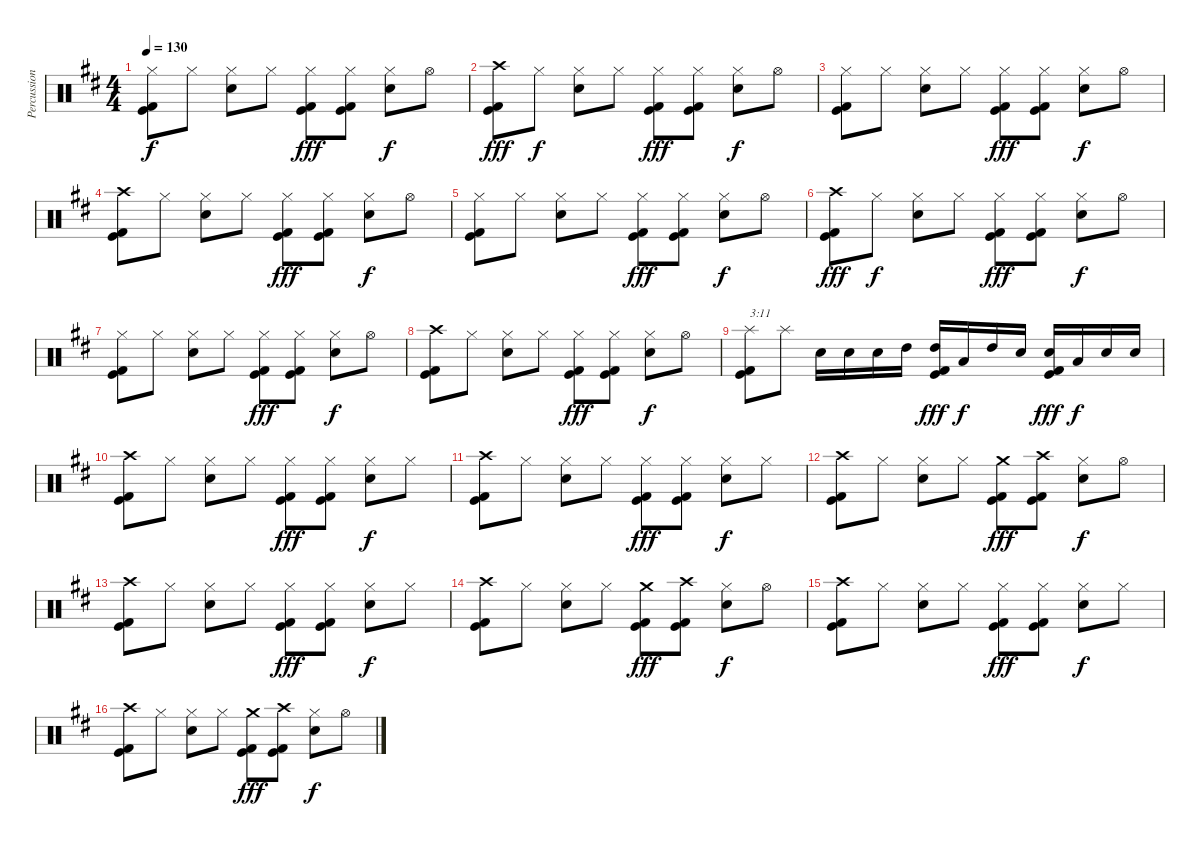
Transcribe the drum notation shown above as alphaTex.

\track ("Percussion" "Percussion") {instrument percussion}
\staff {score}
\articulation defaults
\ts (4 4)
\tempo 130
\clef neutral
\ks d
("Hi-Hat (closed)" "Kick (hit)" "Kick (hit) 2").8{dy f} "Hi-Hat (closed)".8 ("Hi-Hat (closed)" "Electric Snare (hit)").8 "Hi-Hat (closed)".8 ("Hi-Hat (closed)" "Kick (hit)" "Kick (hit) 2").8{dy fff} ("Hi-Hat (closed)" "Kick (hit)" "Kick (hit) 2").8 ("Hi-Hat (closed)" "Electric Snare (hit)").8{dy f} "Hi-Hat (open)".8 |
("Crash high (hit)" "Kick (hit)" "Kick (hit) 2").8{dy fff} "Hi-Hat (closed)".8{dy f} ("Hi-Hat (closed)" "Electric Snare (hit)").8 "Hi-Hat (closed)".8 ("Hi-Hat (closed)" "Kick (hit)" "Kick (hit) 2").8{dy fff} ("Hi-Hat (closed)" "Kick (hit)" "Kick (hit) 2").8 ("Hi-Hat (closed)" "Electric Snare (hit)").8{dy f} "Hi-Hat (open)".8 |
("Hi-Hat (closed)" "Kick (hit)" "Kick (hit) 2").8 "Hi-Hat (closed)".8 ("Hi-Hat (closed)" "Electric Snare (hit)").8 "Hi-Hat (closed)".8 ("Hi-Hat (closed)" "Kick (hit)" "Kick (hit) 2").8{dy fff} ("Hi-Hat (closed)" "Kick (hit)" "Kick (hit) 2").8 ("Hi-Hat (closed)" "Electric Snare (hit)").8{dy f} "Hi-Hat (open)".8 |
("Crash high (hit)" "Kick (hit)" "Kick (hit) 2").8 "Hi-Hat (closed)".8 ("Hi-Hat (closed)" "Electric Snare (hit)").8 "Hi-Hat (closed)".8 ("Hi-Hat (closed)" "Kick (hit)" "Kick (hit) 2").8{dy fff} ("Hi-Hat (closed)" "Kick (hit)" "Kick (hit) 2").8 ("Hi-Hat (closed)" "Electric Snare (hit)").8{dy f} "Hi-Hat (open)".8 |
("Hi-Hat (closed)" "Kick (hit)" "Kick (hit) 2").8 "Hi-Hat (closed)".8 ("Hi-Hat (closed)" "Electric Snare (hit)").8 "Hi-Hat (closed)".8 ("Hi-Hat (closed)" "Kick (hit)" "Kick (hit) 2").8{dy fff} ("Hi-Hat (closed)" "Kick (hit)" "Kick (hit) 2").8 ("Hi-Hat (closed)" "Electric Snare (hit)").8{dy f} "Hi-Hat (open)".8 |
("Crash high (hit)" "Kick (hit)" "Kick (hit) 2").8{dy fff} "Hi-Hat (closed)".8{dy f} ("Hi-Hat (closed)" "Electric Snare (hit)").8 "Hi-Hat (closed)".8 ("Hi-Hat (closed)" "Kick (hit)" "Kick (hit) 2").8{dy fff} ("Hi-Hat (closed)" "Kick (hit)" "Kick (hit) 2").8 ("Hi-Hat (closed)" "Electric Snare (hit)").8{dy f} "Hi-Hat (open)".8 |
("Hi-Hat (closed)" "Kick (hit)" "Kick (hit) 2").8 "Hi-Hat (closed)".8 ("Hi-Hat (closed)" "Electric Snare (hit)").8 "Hi-Hat (closed)".8 ("Hi-Hat (closed)" "Kick (hit)" "Kick (hit) 2").8{dy fff} ("Hi-Hat (closed)" "Kick (hit)" "Kick (hit) 2").8 ("Hi-Hat (closed)" "Electric Snare (hit)").8{dy f} "Hi-Hat (open)".8 |
("Crash high (hit)" "Kick (hit)" "Kick (hit) 2").8 "Hi-Hat (closed)".8 ("Hi-Hat (closed)" "Electric Snare (hit)").8 "Hi-Hat (closed)".8 ("Hi-Hat (closed)" "Kick (hit)" "Kick (hit) 2").8{dy fff} ("Hi-Hat (closed)" "Kick (hit)" "Kick (hit) 2").8 ("Hi-Hat (closed)" "Electric Snare (hit)").8{dy f} "Hi-Hat (open)".8 |
("Splash (hit)" "Kick (hit)" "Kick (hit) 2").8{txt "3:11"} "Splash (hit)".8 "Electric Snare (hit)".16 "Electric Snare (hit)".16 "Electric Snare (hit)".16 "High Tom (hit)".16 ("High Tom (hit)" "Kick (hit)" "Kick (hit) 2").16{dy fff} "Low Tom (hit)".16{dy f} "High Tom (hit)".16 "Electric Snare (hit)".16 ("Electric Snare (hit)" "Kick (hit)" "Kick (hit) 2").16{dy fff} "Low Tom (hit)".16{dy f} "Electric Snare (hit)".16 "Electric Snare (hit)".16 |
("Crash high (hit)" "Kick (hit)" "Kick (hit) 2").8 "Hi-Hat (closed)".8 ("Hi-Hat (closed)" "Electric Snare (hit)").8 "Hi-Hat (closed)".8 ("Hi-Hat (closed)" "Kick (hit)" "Kick (hit) 2").8{dy fff} ("Hi-Hat (closed)" "Kick (hit)" "Kick (hit) 2").8 ("Hi-Hat (closed)" "Electric Snare (hit)").8{dy f} "Hi-Hat (closed)".8 |
("Crash high (hit)" "Kick (hit)" "Kick (hit) 2").8 "Hi-Hat (closed)".8 ("Hi-Hat (closed)" "Electric Snare (hit)").8 "Hi-Hat (closed)".8 ("Hi-Hat (closed)" "Kick (hit)" "Kick (hit) 2").8{dy fff} ("Hi-Hat (closed)" "Kick (hit)" "Kick (hit) 2").8 ("Hi-Hat (closed)" "Electric Snare (hit)").8{dy f} "Hi-Hat (closed)".8 |
("Crash high (hit)" "Kick (hit)" "Kick (hit) 2").8 "Hi-Hat (closed)".8 ("Hi-Hat (closed)" "Electric Snare (hit)").8 "Hi-Hat (closed)".8 ("Crash medium (hit)" "Kick (hit)" "Kick (hit) 2").8{dy fff} ("Crash high (hit)" "Kick (hit)" "Kick (hit) 2").8 ("Hi-Hat (closed)" "Electric Snare (hit)").8{dy f} "Hi-Hat (open)".8 |
("Crash high (hit)" "Kick (hit)" "Kick (hit) 2").8 "Hi-Hat (closed)".8 ("Hi-Hat (closed)" "Electric Snare (hit)").8 "Hi-Hat (closed)".8 ("Hi-Hat (closed)" "Kick (hit)" "Kick (hit) 2").8{dy fff} ("Hi-Hat (closed)" "Kick (hit)" "Kick (hit) 2").8 ("Hi-Hat (closed)" "Electric Snare (hit)").8{dy f} "Hi-Hat (closed)".8 |
("Crash high (hit)" "Kick (hit)" "Kick (hit) 2").8 "Hi-Hat (closed)".8 ("Hi-Hat (closed)" "Electric Snare (hit)").8 "Hi-Hat (closed)".8 ("Crash medium (hit)" "Kick (hit)" "Kick (hit) 2").8{dy fff} ("Crash high (hit)" "Kick (hit)" "Kick (hit) 2").8 ("Hi-Hat (closed)" "Electric Snare (hit)").8{dy f} "Hi-Hat (open)".8 |
("Crash high (hit)" "Kick (hit)" "Kick (hit) 2").8 "Hi-Hat (closed)".8 ("Hi-Hat (closed)" "Electric Snare (hit)").8 "Hi-Hat (closed)".8 ("Hi-Hat (closed)" "Kick (hit)" "Kick (hit) 2").8{dy fff} ("Hi-Hat (closed)" "Kick (hit)" "Kick (hit) 2").8 ("Hi-Hat (closed)" "Electric Snare (hit)").8{dy f} "Hi-Hat (closed)".8 |
("Crash high (hit)" "Kick (hit)" "Kick (hit) 2").8 "Hi-Hat (closed)".8 ("Hi-Hat (closed)" "Electric Snare (hit)").8 "Hi-Hat (closed)".8 ("Crash medium (hit)" "Kick (hit)" "Kick (hit) 2").8{dy fff} ("Crash high (hit)" "Kick (hit)" "Kick (hit) 2").8 ("Hi-Hat (closed)" "Electric Snare (hit)").8{dy f} "Hi-Hat (open)".8
